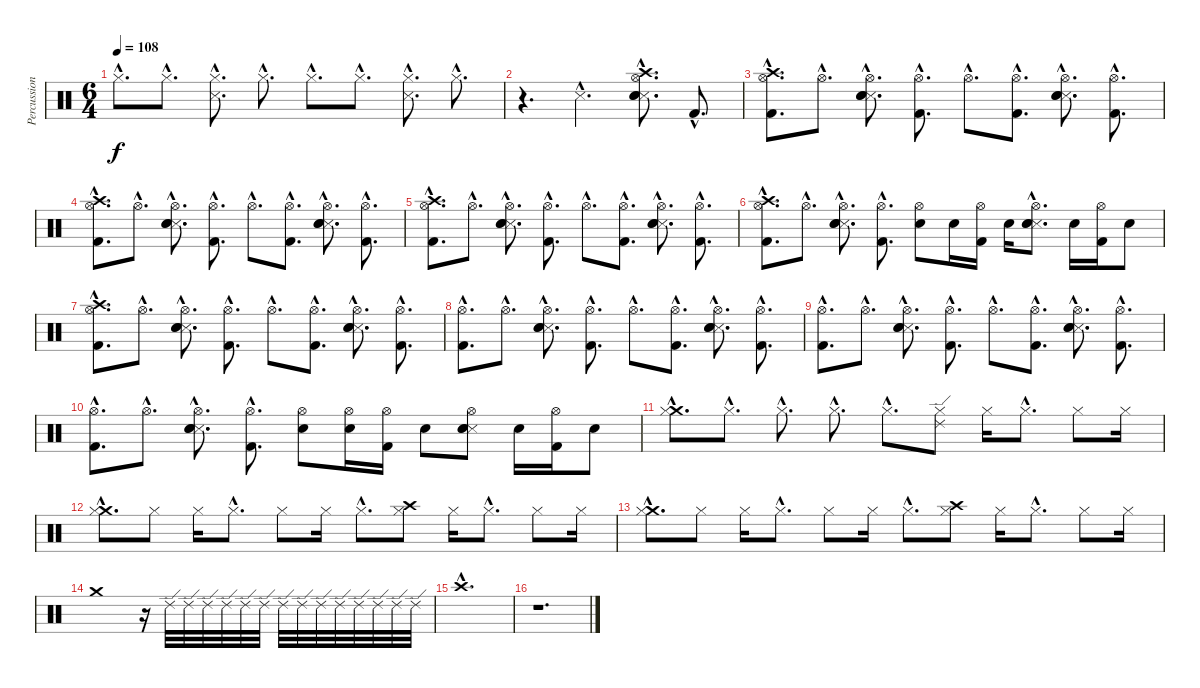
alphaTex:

\track ("Percussion" "Percussion") {instrument percussion}
\staff {score}
\articulation defaults
\ts (6 4)
\tempo 108
\clef neutral
\ks c "Hi-Hat (closed)"{hac}.8{d dy f} "Hi-Hat (closed)"{hac}.8{d}
("Hi-Hat (closed)"{hac} "Snare (side stick) 3"{hac}).8{d} "Hi-Hat (closed)"{hac}.8{d} "Hi-Hat (closed)"{hac}.8{d} "Hi-Hat (closed)"{hac}.8{d} ("Hi-Hat (closed)"{hac} "Snare (side stick) 3"{hac}).8{d} "Hi-Hat (closed)"{hac}.8{d} |
r.4{d} "Snare (side stick) 3"{hac}.2{d} ("Crash high (hit)"{hac} "Snare (side stick) 3"{hac} "Hi-Hat (open)"{hac} "Snare (hit) 2"{hac} "Electric Snare (hit)"{hac}).8{d} "Kick (hit) 2"{hac}.8{d} |
("Crash high (hit)"{hac} "Hi-Hat (open)"{hac} "Kick (hit) 2"{hac}).8{d} "Hi-Hat (open)"{hac}.8{d} ("Hi-Hat (open)"{hac} "Snare (side stick) 3"{hac} "Snare (hit) 2"{hac} "Electric Snare (hit)"{hac}).8{d} ("Hi-Hat (open)"{hac} "Kick (hit) 2"{hac}).8{d} "Hi-Hat (open)"{hac}.8{d} ("Hi-Hat (open)"{hac} "Kick (hit) 2"{hac}).8{d} ("Hi-Hat (open)"{hac} "Snare (side stick) 3"{hac} "Snare (hit) 2"{hac} "Electric Snare (hit)"{hac}).8{d} ("Hi-Hat (open)"{hac} "Kick (hit) 2"{hac}).8{d} |
("Crash high (hit)"{hac} "Hi-Hat (open)"{hac} "Kick (hit) 2"{hac}).8{d} "Hi-Hat (open)"{hac}.8{d} ("Hi-Hat (open)"{hac} "Snare (side stick) 3"{hac} "Snare (hit) 2"{hac} "Electric Snare (hit)"{hac}).8{d} ("Hi-Hat (open)"{hac} "Kick (hit) 2"{hac}).8{d} "Hi-Hat (open)"{hac}.8{d} ("Hi-Hat (open)"{hac} "Kick (hit) 2"{hac}).8{d} ("Hi-Hat (open)"{hac} "Snare (side stick) 3"{hac} "Snare (hit) 2"{hac} "Electric Snare (hit)"{hac}).8{d} ("Hi-Hat (open)"{hac} "Kick (hit) 2"{hac}).8{d} |
("Crash high (hit)"{hac} "Hi-Hat (open)"{hac} "Kick (hit) 2"{hac}).8{d} "Hi-Hat (open)"{hac}.8{d} ("Hi-Hat (open)"{hac} "Snare (side stick) 3"{hac} "Snare (hit) 2"{hac} "Electric Snare (hit)"{hac}).8{d} ("Hi-Hat (open)"{hac} "Kick (hit) 2"{hac}).8{d} "Hi-Hat (open)"{hac}.8{d} ("Hi-Hat (open)"{hac} "Kick (hit) 2"{hac}).8{d} ("Hi-Hat (open)"{hac} "Snare (side stick) 3"{hac} "Snare (hit) 2"{hac} "Electric Snare (hit)"{hac}).8{d} ("Hi-Hat (open)"{hac} "Kick (hit) 2"{hac}).8{d} |
("Crash high (hit)"{hac} "Hi-Hat (open)"{hac} "Kick (hit) 2"{hac}).8{d} "Hi-Hat (open)"{hac}.8{d} ("Hi-Hat (open)"{hac} "Snare (side stick) 3"{hac} "Snare (hit) 2"{hac} "Electric Snare (hit)"{hac}).8{d} ("Hi-Hat (open)"{hac} "Kick (hit) 2"{hac}).8{d} ("Hi-Hat (open)" "Electric Snare (hit)").8 "Electric Snare (hit)".16 ("Hi-Hat (open)" "Kick (hit) 2").16 "Electric Snare (hit)".16 ("Hi-Hat (open)"{hac} "Snare (side stick) 3"{hac} "Snare (hit) 2"{hac} "Electric Snare (hit)"{hac}).8{d} "Electric Snare (hit)".16 ("Hi-Hat (open)" "Kick (hit) 2").16 "Electric Snare (hit)".8 |
("Crash high (hit)"{hac} "Hi-Hat (open)"{hac} "Kick (hit) 2"{hac}).8{d} "Hi-Hat (open)"{hac}.8{d} ("Hi-Hat (open)"{hac} "Snare (side stick) 3"{hac} "Snare (hit) 2"{hac} "Electric Snare (hit)"{hac}).8{d} ("Hi-Hat (open)"{hac} "Kick (hit) 2"{hac}).8{d} "Hi-Hat (open)"{hac}.8{d} ("Hi-Hat (open)"{hac} "Kick (hit) 2"{hac}).8{d} ("Hi-Hat (open)"{hac} "Snare (side stick) 3"{hac} "Snare (hit) 2"{hac} "Electric Snare (hit)"{hac}).8{d} ("Hi-Hat (open)"{hac} "Kick (hit) 2"{hac}).8{d} |
("Hi-Hat (open)"{hac} "Kick (hit) 2"{hac}).8{d} "Hi-Hat (open)"{hac}.8{d} ("Hi-Hat (open)"{hac} "Snare (side stick) 3"{hac} "Snare (hit) 2"{hac} "Electric Snare (hit)"{hac}).8{d} ("Hi-Hat (open)"{hac} "Kick (hit) 2"{hac}).8{d} "Hi-Hat (open)"{hac}.8{d} ("Hi-Hat (open)"{hac} "Kick (hit) 2"{hac}).8{d} ("Hi-Hat (open)"{hac} "Snare (side stick) 3"{hac} "Snare (hit) 2"{hac} "Electric Snare (hit)"{hac}).8{d} ("Hi-Hat (open)"{hac} "Kick (hit) 2"{hac}).8{d} |
("Hi-Hat (open)"{hac} "Kick (hit) 2"{hac}).8{d} "Hi-Hat (open)"{hac}.8{d} ("Hi-Hat (open)"{hac} "Snare (side stick) 3"{hac} "Snare (hit) 2"{hac} "Electric Snare (hit)"{hac}).8{d} ("Hi-Hat (open)"{hac} "Kick (hit) 2"{hac}).8{d} "Hi-Hat (open)"{hac}.8{d} ("Hi-Hat (open)"{hac} "Kick (hit) 2"{hac}).8{d} ("Hi-Hat (open)"{hac} "Snare (side stick) 3"{hac} "Snare (hit) 2"{hac} "Electric Snare (hit)"{hac}).8{d} ("Hi-Hat (open)"{hac} "Kick (hit) 2"{hac}).8{d} |
("Hi-Hat (open)"{hac} "Kick (hit) 2"{hac}).8{d} "Hi-Hat (open)"{hac}.8{d} ("Hi-Hat (open)"{hac} "Snare (side stick) 3"{hac} "Snare (hit) 2"{hac} "Electric Snare (hit)"{hac}).8{d} ("Hi-Hat (open)"{hac} "Kick (hit) 2"{hac}).8{d} ("Hi-Hat (open)" "Electric Snare (hit)").8 ("Hi-Hat (open)" "Electric Snare (hit)").16 ("Hi-Hat (open)" "Kick (hit) 2").16 "Electric Snare (hit)".8 ("Hi-Hat (open)" "Snare (side stick) 3" "Snare (hit) 2" "Electric Snare (hit)").8 "Electric Snare (hit)".16 ("Hi-Hat (open)" "Kick (hit) 2").16 "Electric Snare (hit)".8 |
("Crash medium (hit)"{hac} "Hi-Hat (closed)"{hac}).8{d} "Hi-Hat (closed)"{hac}.8{d} "Hi-Hat (closed)"{hac}.8{d} "Hi-Hat (closed)"{hac}.8{d} "Hi-Hat (closed)"{hac}.8{d} ("Ride (edge) 2" "Hi-Hat (closed)").8 "Hi-Hat (closed)".16 "Hi-Hat (closed)"{hac}.8{d} "Hi-Hat (closed)".8 "Hi-Hat (closed)".16 |
("Crash medium (hit)"{hac} "Hi-Hat (closed)"{hac}).8{d} "Hi-Hat (closed)".8 "Hi-Hat (closed)".16 "Hi-Hat (closed)"{hac}.8{d} "Hi-Hat (closed)".8 "Hi-Hat (closed)".16 "Hi-Hat (closed)"{hac}.8{d} ("Crash high (hit)" "Hi-Hat (closed)").8 "Hi-Hat (closed)".16 "Hi-Hat (closed)"{hac}.8{d} "Hi-Hat (closed)".8 "Hi-Hat (closed)".16 |
("Crash medium (hit)"{hac} "Hi-Hat (closed)"{hac}).8{d} "Hi-Hat (closed)".8 "Hi-Hat (closed)".16 "Hi-Hat (closed)"{hac}.8{d} "Hi-Hat (closed)".8 "Hi-Hat (closed)".16 "Hi-Hat (closed)"{hac}.8{d} ("Crash high (hit)" "Hi-Hat (closed)").8 "Hi-Hat (closed)".16 "Hi-Hat (closed)"{hac}.8{d} "Hi-Hat (closed)".8 "Hi-Hat (closed)".16 |
"Crash medium (hit)".1 r.16{volume 0} "Ride (edge) 2".32{volume 8} "Ride (edge) 2".32 "Ride (edge) 2".32 "Ride (edge) 2".32 "Ride (edge) 2".32 "Ride (edge) 2".32 "Ride (edge) 2".32 "Ride (edge) 2".32 "Ride (edge) 2".32 "Ride (edge) 2".32 "Ride (edge) 2".32 "Ride (edge) 2".32 "Ride (edge) 2".32 "Ride (edge) 2".32 |
"Crash high (hit)"{hac}.1{d} |
r.1{d}
